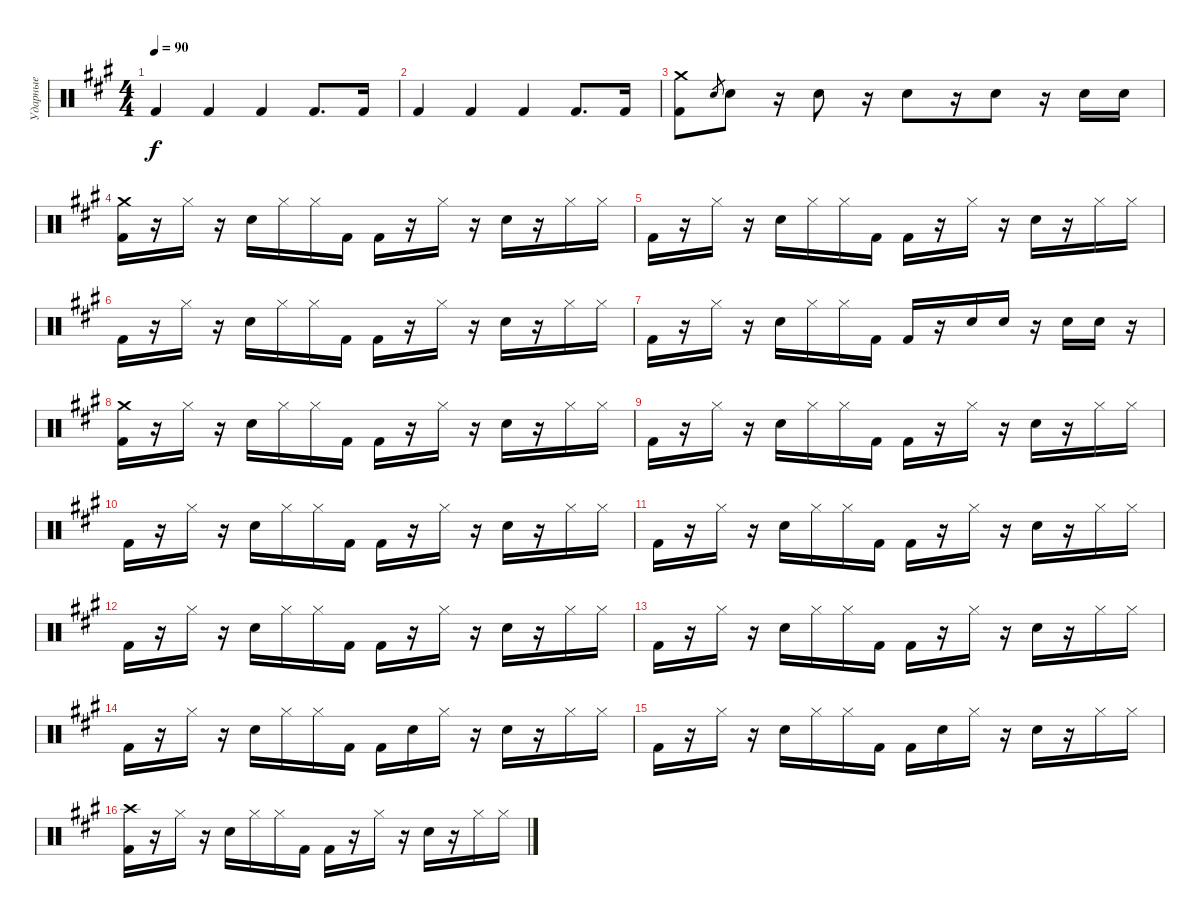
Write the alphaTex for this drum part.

\track ("Ударные" "Ударные") {instrument percussion}
\staff {score}
\articulation defaults
\ts (4 4)
\tempo 90
\clef neutral
\ks f#minor "Kick (hit) 2".4{dy f} "Kick (hit) 2".4 "Kick (hit) 2".4 "Kick (hit) 2".8{d} "Kick (hit) 2".16
|
"Kick (hit) 2".4 "Kick (hit) 2".4 "Kick (hit) 2".4 "Kick (hit) 2".8{d} "Kick (hit) 2".16 |
("Crash medium (hit)" "Kick (hit) 2").8 "Electric Snare (hit)".8{gr} "Electric Snare (hit)".8 r.16 "Electric Snare (hit)".8 r.16 "Electric Snare (hit)".8 r.16 "Electric Snare (hit)".8 r.16 "Electric Snare (hit)".16 "Electric Snare (hit)".16 |
("Crash medium (hit)" "Kick (hit) 2").16 r.16 "Hi-Hat (closed)".16 r.16 "Electric Snare (hit)".16 "Hi-Hat (closed)".16 "Hi-Hat (closed)".16 "Kick (hit) 2".16 "Kick (hit) 2".16 r.16 "Hi-Hat (closed)".16 r.16 "Electric Snare (hit)".16 r.16 "Hi-Hat (closed)".16 "Hi-Hat (closed)".16 |
"Kick (hit) 2".16 r.16 "Hi-Hat (closed)".16 r.16 "Electric Snare (hit)".16 "Hi-Hat (closed)".16 "Hi-Hat (closed)".16 "Kick (hit) 2".16 "Kick (hit) 2".16 r.16 "Hi-Hat (closed)".16 r.16 "Electric Snare (hit)".16 r.16 "Hi-Hat (closed)".16 "Hi-Hat (closed)".16 |
"Kick (hit) 2".16 r.16 "Hi-Hat (closed)".16 r.16 "Electric Snare (hit)".16 "Hi-Hat (closed)".16 "Hi-Hat (closed)".16 "Kick (hit) 2".16 "Kick (hit) 2".16 r.16 "Hi-Hat (closed)".16 r.16 "Electric Snare (hit)".16 r.16 "Hi-Hat (closed)".16 "Hi-Hat (closed)".16 |
"Kick (hit) 2".16 r.16 "Hi-Hat (closed)".16 r.16 "Electric Snare (hit)".16 "Hi-Hat (closed)".16 "Hi-Hat (closed)".16 "Kick (hit) 2".16 "Kick (hit) 2".16 r.16 "Electric Snare (hit)".16 "Electric Snare (hit)".16 r.16 "Electric Snare (hit)".16 "Electric Snare (hit)".16 r.16 |
("Crash medium (hit)" "Kick (hit) 2").16 r.16 "Hi-Hat (closed)".16 r.16 "Electric Snare (hit)".16 "Hi-Hat (closed)".16 "Hi-Hat (closed)".16 "Kick (hit) 2".16 "Kick (hit) 2".16 r.16 "Hi-Hat (closed)".16 r.16 "Electric Snare (hit)".16 r.16 "Hi-Hat (closed)".16 "Hi-Hat (closed)".16 |
"Kick (hit) 2".16 r.16 "Hi-Hat (closed)".16 r.16 "Electric Snare (hit)".16 "Hi-Hat (closed)".16 "Hi-Hat (closed)".16 "Kick (hit) 2".16 "Kick (hit) 2".16 r.16 "Hi-Hat (closed)".16 r.16 "Electric Snare (hit)".16 r.16 "Hi-Hat (closed)".16 "Hi-Hat (closed)".16 |
"Kick (hit) 2".16 r.16 "Hi-Hat (closed)".16 r.16 "Electric Snare (hit)".16 "Hi-Hat (closed)".16 "Hi-Hat (closed)".16 "Kick (hit) 2".16 "Kick (hit) 2".16 r.16 "Hi-Hat (closed)".16 r.16 "Electric Snare (hit)".16 r.16 "Hi-Hat (closed)".16 "Hi-Hat (closed)".16 |
"Kick (hit) 2".16 r.16 "Hi-Hat (closed)".16 r.16 "Electric Snare (hit)".16 "Hi-Hat (closed)".16 "Hi-Hat (closed)".16 "Kick (hit) 2".16 "Kick (hit) 2".16 r.16 "Hi-Hat (closed)".16 r.16 "Electric Snare (hit)".16 r.16 "Hi-Hat (closed)".16 "Hi-Hat (closed)".16 |
"Kick (hit) 2".16 r.16 "Hi-Hat (closed)".16 r.16 "Electric Snare (hit)".16 "Hi-Hat (closed)".16 "Hi-Hat (closed)".16 "Kick (hit) 2".16 "Kick (hit) 2".16 r.16 "Hi-Hat (closed)".16 r.16 "Electric Snare (hit)".16 r.16 "Hi-Hat (closed)".16 "Hi-Hat (closed)".16 |
"Kick (hit) 2".16 r.16 "Hi-Hat (closed)".16 r.16 "Electric Snare (hit)".16 "Hi-Hat (closed)".16 "Hi-Hat (closed)".16 "Kick (hit) 2".16 "Kick (hit) 2".16 r.16 "Hi-Hat (closed)".16 r.16 "Electric Snare (hit)".16 r.16 "Hi-Hat (closed)".16 "Hi-Hat (closed)".16 |
"Kick (hit) 2".16 r.16 "Hi-Hat (closed)".16 r.16 "Electric Snare (hit)".16 "Hi-Hat (closed)".16 "Hi-Hat (closed)".16 "Kick (hit) 2".16 "Kick (hit) 2".16 "Electric Snare (hit)".16 "Hi-Hat (closed)".16 r.16 "Electric Snare (hit)".16 r.16 "Hi-Hat (closed)".16 "Hi-Hat (closed)".16 |
"Kick (hit) 2".16 r.16 "Hi-Hat (closed)".16 r.16 "Electric Snare (hit)".16 "Hi-Hat (closed)".16 "Hi-Hat (closed)".16 "Kick (hit) 2".16 "Kick (hit) 2".16 "Electric Snare (hit)".16 "Hi-Hat (closed)".16 r.16 "Electric Snare (hit)".16 r.16 "Hi-Hat (closed)".16 "Hi-Hat (closed)".16 |
("Crash high (hit)" "Kick (hit) 2").16 r.16 "Hi-Hat (closed)".16 r.16 "Electric Snare (hit)".16 "Hi-Hat (closed)".16 "Hi-Hat (closed)".16 "Kick (hit) 2".16 "Kick (hit) 2".16 r.16 "Hi-Hat (closed)".16 r.16 "Electric Snare (hit)".16 r.16 "Hi-Hat (closed)".16 "Hi-Hat (closed)".16
